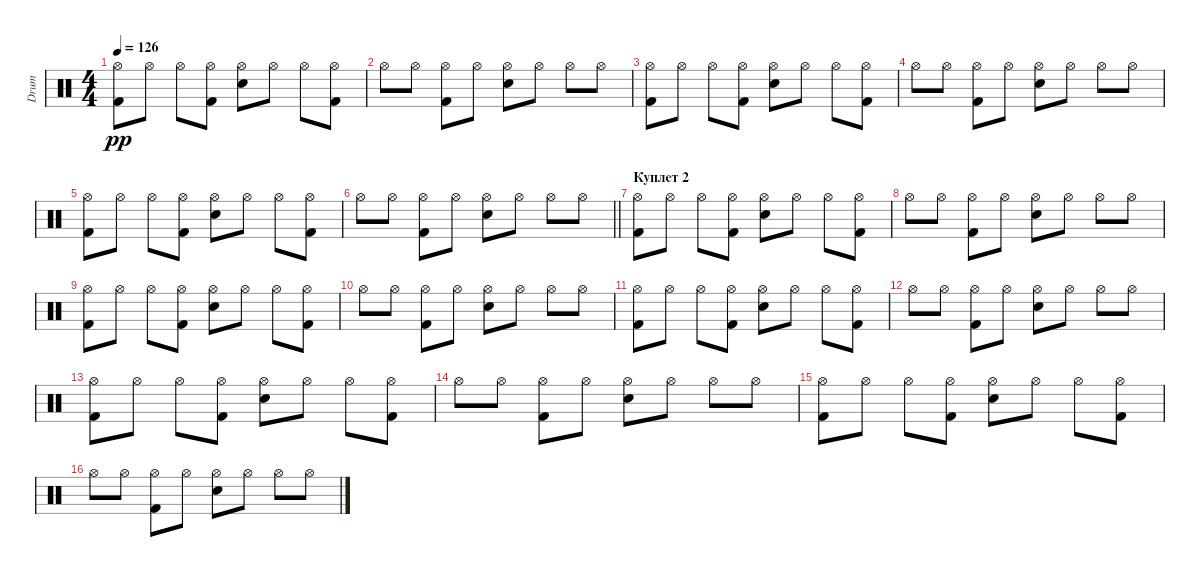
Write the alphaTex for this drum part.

\track ("Drum" "Drum") {instrument percussion}
\staff {score}
\articulation defaults
\ts (4 4)
\tempo 126
\clef neutral
\ks c
("Kick (hit) 2" "Hi-Hat (open)").8{dy pp} "Hi-Hat (open)".8 "Hi-Hat (open)".8 ("Hi-Hat (open)" "Kick (hit) 2").8 ("Snare (hit) 2" "Hi-Hat (open)").8 "Hi-Hat (open)".8 "Hi-Hat (open)".8 ("Hi-Hat (open)" "Kick (hit) 2").8 |
"Hi-Hat (open)".8 "Hi-Hat (open)".8 ("Hi-Hat (open)" "Kick (hit) 2").8 "Hi-Hat (open)".8 ("Snare (hit) 2" "Hi-Hat (open)").8 "Hi-Hat (open)".8 "Hi-Hat (open)".8 "Hi-Hat (open)".8 |
("Kick (hit) 2" "Hi-Hat (open)").8 "Hi-Hat (open)".8 "Hi-Hat (open)".8 ("Hi-Hat (open)" "Kick (hit) 2").8 ("Snare (hit) 2" "Hi-Hat (open)").8 "Hi-Hat (open)".8 "Hi-Hat (open)".8 ("Hi-Hat (open)" "Kick (hit) 2").8 |
"Hi-Hat (open)".8 "Hi-Hat (open)".8 ("Hi-Hat (open)" "Kick (hit) 2").8 "Hi-Hat (open)".8 ("Snare (hit) 2" "Hi-Hat (open)").8 "Hi-Hat (open)".8 "Hi-Hat (open)".8 "Hi-Hat (open)".8 |
("Kick (hit) 2" "Hi-Hat (open)").8 "Hi-Hat (open)".8 "Hi-Hat (open)".8 ("Hi-Hat (open)" "Kick (hit) 2").8 ("Snare (hit) 2" "Hi-Hat (open)").8 "Hi-Hat (open)".8 "Hi-Hat (open)".8 ("Hi-Hat (open)" "Kick (hit) 2").8 |
\barLineRight lightlight "Hi-Hat (open)".8 "Hi-Hat (open)".8
("Hi-Hat (open)" "Kick (hit) 2").8 "Hi-Hat (open)".8 ("Snare (hit) 2" "Hi-Hat (open)").8 "Hi-Hat (open)".8 "Hi-Hat (open)".8 "Hi-Hat (open)".8 |
\section ("" "Куплет 2")
("Kick (hit) 2" "Hi-Hat (open)").8 "Hi-Hat (open)".8 "Hi-Hat (open)".8 ("Hi-Hat (open)" "Kick (hit) 2").8 ("Snare (hit) 2" "Hi-Hat (open)").8 "Hi-Hat (open)".8 "Hi-Hat (open)".8 ("Hi-Hat (open)" "Kick (hit) 2").8 |
"Hi-Hat (open)".8 "Hi-Hat (open)".8 ("Hi-Hat (open)" "Kick (hit) 2").8 "Hi-Hat (open)".8 ("Snare (hit) 2" "Hi-Hat (open)").8 "Hi-Hat (open)".8 "Hi-Hat (open)".8 "Hi-Hat (open)".8 |
("Kick (hit) 2" "Hi-Hat (open)").8 "Hi-Hat (open)".8 "Hi-Hat (open)".8 ("Hi-Hat (open)" "Kick (hit) 2").8 ("Snare (hit) 2" "Hi-Hat (open)").8 "Hi-Hat (open)".8 "Hi-Hat (open)".8 ("Hi-Hat (open)" "Kick (hit) 2").8 |
"Hi-Hat (open)".8 "Hi-Hat (open)".8 ("Hi-Hat (open)" "Kick (hit) 2").8 "Hi-Hat (open)".8 ("Snare (hit) 2" "Hi-Hat (open)").8 "Hi-Hat (open)".8 "Hi-Hat (open)".8 "Hi-Hat (open)".8 |
("Kick (hit) 2" "Hi-Hat (open)").8 "Hi-Hat (open)".8 "Hi-Hat (open)".8 ("Hi-Hat (open)" "Kick (hit) 2").8 ("Snare (hit) 2" "Hi-Hat (open)").8 "Hi-Hat (open)".8 "Hi-Hat (open)".8 ("Hi-Hat (open)" "Kick (hit) 2").8 |
"Hi-Hat (open)".8 "Hi-Hat (open)".8 ("Hi-Hat (open)" "Kick (hit) 2").8 "Hi-Hat (open)".8 ("Snare (hit) 2" "Hi-Hat (open)").8 "Hi-Hat (open)".8 "Hi-Hat (open)".8 "Hi-Hat (open)".8 |
("Kick (hit) 2" "Hi-Hat (open)").8 "Hi-Hat (open)".8 "Hi-Hat (open)".8 ("Hi-Hat (open)" "Kick (hit) 2").8 ("Snare (hit) 2" "Hi-Hat (open)").8 "Hi-Hat (open)".8 "Hi-Hat (open)".8 ("Hi-Hat (open)" "Kick (hit) 2").8 |
"Hi-Hat (open)".8 "Hi-Hat (open)".8 ("Hi-Hat (open)" "Kick (hit) 2").8 "Hi-Hat (open)".8 ("Snare (hit) 2" "Hi-Hat (open)").8 "Hi-Hat (open)".8 "Hi-Hat (open)".8 "Hi-Hat (open)".8 |
("Kick (hit) 2" "Hi-Hat (open)").8 "Hi-Hat (open)".8 "Hi-Hat (open)".8 ("Hi-Hat (open)" "Kick (hit) 2").8 ("Snare (hit) 2" "Hi-Hat (open)").8 "Hi-Hat (open)".8 "Hi-Hat (open)".8 ("Hi-Hat (open)" "Kick (hit) 2").8 |
"Hi-Hat (open)".8 "Hi-Hat (open)".8 ("Hi-Hat (open)" "Kick (hit) 2").8 "Hi-Hat (open)".8 ("Snare (hit) 2" "Hi-Hat (open)").8 "Hi-Hat (open)".8 "Hi-Hat (open)".8 "Hi-Hat (open)".8
